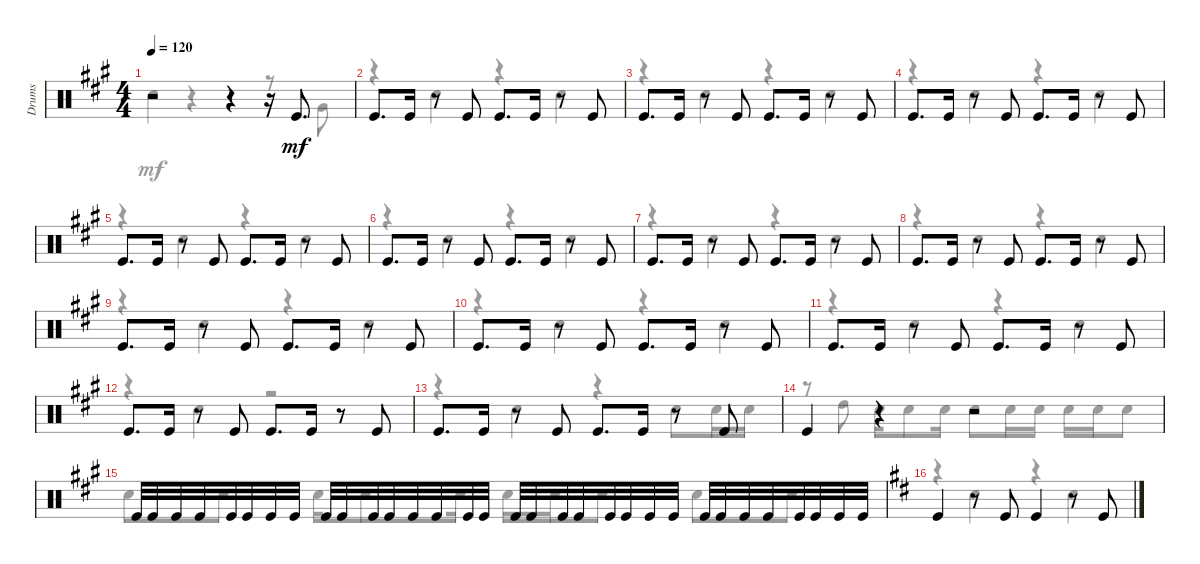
\track ("Drums" "Drums") {instrument percussion}
\staff {score}
\articulation defaults
\voice
\ts (4 4)
\tempo 120
\clef neutral
\ks f#minor
r.2{dy mf} r.4 r.16 "Kick (hit)".8{d} |
"Kick (hit)".8{d} "Kick (hit)".16 r.8 "Kick (hit)".8 "Kick (hit)".8{d} "Kick (hit)".16 r.8 "Kick (hit)".8 |
"Kick (hit)".8{d} "Kick (hit)".16 r.8 "Kick (hit)".8 "Kick (hit)".8{d} "Kick (hit)".16 r.8 "Kick (hit)".8 |
"Kick (hit)".8{d} "Kick (hit)".16 r.8 "Kick (hit)".8 "Kick (hit)".8{d} "Kick (hit)".16 r.8 "Kick (hit)".8 |
"Kick (hit)".8{d} "Kick (hit)".16 r.8 "Kick (hit)".8 "Kick (hit)".8{d} "Kick (hit)".16 r.8 "Kick (hit)".8 |
"Kick (hit)".8{d} "Kick (hit)".16 r.8 "Kick (hit)".8 "Kick (hit)".8{d} "Kick (hit)".16 r.8 "Kick (hit)".8 |
"Kick (hit)".8{d} "Kick (hit)".16 r.8 "Kick (hit)".8 "Kick (hit)".8{d} "Kick (hit)".16 r.8 "Kick (hit)".8 |
"Kick (hit)".8{d} "Kick (hit)".16 r.8 "Kick (hit)".8 "Kick (hit)".8{d} "Kick (hit)".16 r.8 "Kick (hit)".8 |
"Kick (hit)".8{d} "Kick (hit)".16 r.8 "Kick (hit)".8 "Kick (hit)".8{d} "Kick (hit)".16 r.8 "Kick (hit)".8 |
"Kick (hit)".8{d} "Kick (hit)".16 r.8 "Kick (hit)".8 "Kick (hit)".8{d} "Kick (hit)".16 r.8 "Kick (hit)".8 |
"Kick (hit)".8{d} "Kick (hit)".16 r.8 "Kick (hit)".8 "Kick (hit)".8{d} "Kick (hit)".16 r.8 "Kick (hit)".8 |
"Kick (hit)".8{d} "Kick (hit)".16 r.8 "Kick (hit)".8 "Kick (hit)".8{d} "Kick (hit)".16 r.8 "Kick (hit)".8 |
"Kick (hit)".8{d} "Kick (hit)".16 r.8 "Kick (hit)".8 "Kick (hit)".8{d} "Kick (hit)".16 r.8 "Kick (hit)".8 |
"Kick (hit)".4 r.4 r.2 |
"Kick (hit)".32 "Kick (hit)".32 "Kick (hit)".32 "Kick (hit)".32 "Kick (hit)".32 "Kick (hit)".32 "Kick (hit)".32 "Kick (hit)".32 "Kick (hit)".32 "Kick (hit)".32 "Kick (hit)".32 "Kick (hit)".32 "Kick (hit)".32 "Kick (hit)".32 "Kick (hit)".32 "Kick (hit)".32 "Kick (hit)".32 "Kick (hit)".32 "Kick (hit)".32 "Kick (hit)".32 "Kick (hit)".32 "Kick (hit)".32 "Kick (hit)".32 "Kick (hit)".32 "Kick (hit)".32 "Kick (hit)".32 "Kick (hit)".32 "Kick (hit)".32 "Kick (hit)".32 "Kick (hit)".32 "Kick (hit)".32 "Kick (hit)".32 |
\ks bminor "Kick (hit)".4
r.8 "Kick (hit)".8 "Kick (hit)".4 r.8 "Kick (hit)".8
\voice
\clef neutral
\ottava regular
\simile none
\ks f#minor "Snare (hit) 2"{t}.4{dy mf}
r.4 r.4 r.8 "Very Low Tom (hit)".8 |
r.4 "Snare (hit) 2".4 r.4 "Snare (hit) 2".4 |
r.4 "Snare (hit) 2".4 r.4 "Snare (hit) 2".4 |
r.4 "Snare (hit) 2".4 r.4 "Snare (hit) 2".4 |
r.4 "Snare (hit) 2".4 r.4 "Snare (hit) 2".4 |
r.4 "Snare (hit) 2".4 r.4 "Snare (hit) 2".4 |
r.4 "Snare (hit) 2".4 r.4 "Snare (hit) 2".4 |
r.4 "Snare (hit) 2".4 r.4 "Snare (hit) 2".4 |
r.4 "Snare (hit) 2".4 r.4 "Snare (hit) 2".4 |
r.4 "Snare (hit) 2".4 r.4 "Snare (hit) 2".4 |
r.4 "Snare (hit) 2".4 r.4 "Snare (hit) 2".4 |
r.4 "Snare (hit) 2".4 r.2 |
r.4 "Snare (hit) 2".4 r.4 "Snare (hit) 2".8 "Snare (hit) 2".16 "Snare (hit) 2".16 |
r.8 "High Tom (hit)".8 "Snare (hit) 2".16 "Snare (hit) 2".8 "Snare (hit) 2".16 "Snare (hit) 2".8 "Snare (hit) 2".16 "Snare (hit) 2".16 "Snare (hit) 2".16 "Snare (hit) 2".16 "Snare (hit) 2".8 |
"Snare (hit) 2".8 "Snare (hit) 2".8 "Snare (hit) 2".16 "Snare (hit) 2".8 "Snare (hit) 2".16 "Snare (hit) 2".16 "Snare (hit) 2".16 "Snare (hit) 2".8 "Snare (hit) 2".8 "Snare (hit) 2".8 |
\ks bminor
r.4 "Snare (hit) 2".4 r.4 "Snare (hit) 2".4
